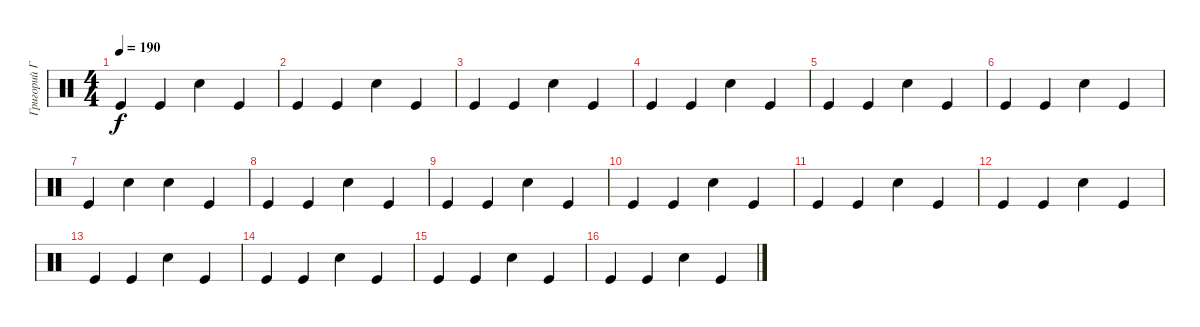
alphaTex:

\track ("Григорий Габерман" "Григорий Г") {instrument percussion}
\staff {score}
\articulation defaults
\ts (4 4)
\tempo 190
\clef neutral
\ks c "Kick (hit)".4{dy f} "Kick (hit)".4 "Snare (hit) 2".4 "Kick (hit)".4
|
"Kick (hit)".4 "Kick (hit)".4 "Snare (hit) 2".4 "Kick (hit)".4 |
"Kick (hit)".4 "Kick (hit)".4 "Snare (hit) 2".4 "Kick (hit)".4 |
"Kick (hit)".4 "Kick (hit)".4 "Snare (hit) 2".4 "Kick (hit)".4 |
"Kick (hit)".4 "Kick (hit)".4 "Snare (hit) 2".4 "Kick (hit)".4 |
"Kick (hit)".4 "Kick (hit)".4 "Snare (hit) 2".4 "Kick (hit)".4 |
"Kick (hit)".4 "Snare (hit) 2".4 "Snare (hit) 2".4 "Kick (hit)".4 |
"Kick (hit)".4 "Kick (hit)".4 "Snare (hit) 2".4 "Kick (hit)".4 |
"Kick (hit)".4 "Kick (hit)".4 "Snare (hit) 2".4 "Kick (hit)".4 |
"Kick (hit)".4 "Kick (hit)".4 "Snare (hit) 2".4 "Kick (hit)".4 |
"Kick (hit)".4 "Kick (hit)".4 "Snare (hit) 2".4 "Kick (hit)".4 |
"Kick (hit)".4 "Kick (hit)".4 "Snare (hit) 2".4 "Kick (hit)".4 |
"Kick (hit)".4 "Kick (hit)".4 "Snare (hit) 2".4 "Kick (hit)".4 |
"Kick (hit)".4 "Kick (hit)".4 "Snare (hit) 2".4 "Kick (hit)".4 |
"Kick (hit)".4 "Kick (hit)".4 "Snare (hit) 2".4 "Kick (hit)".4 |
"Kick (hit)".4 "Kick (hit)".4 "Snare (hit) 2".4 "Kick (hit)".4
